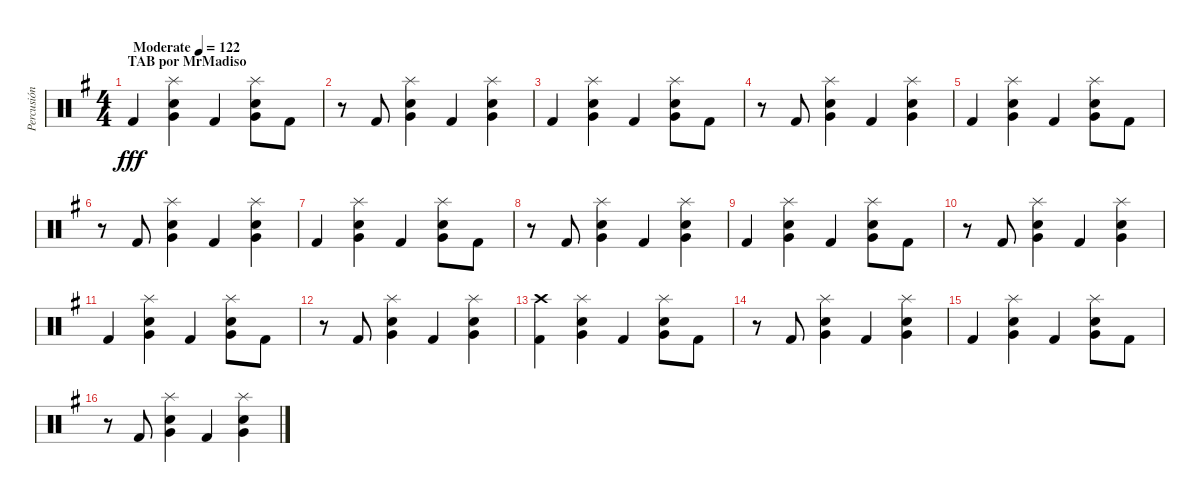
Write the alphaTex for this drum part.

\track ("Percusión" "Percusión") {instrument percussion}
\staff {score}
\articulation defaults
\ts (4 4)
\section ("" "TAB por MrMadiso")
\tempo (122 "Moderate")
\clef neutral
\ks g "Kick (hit) 2".4{dy fff}
("Splash (hit)" "Very Low Tom (hit)" "Snare (hit) 2").4 "Kick (hit) 2".4 ("Splash (hit)" "Very Low Tom (hit)" "Snare (hit) 2").8 "Kick (hit) 2".8 |
r.8 "Kick (hit) 2".8 ("Splash (hit)" "Very Low Tom (hit)" "Snare (hit) 2").4 "Kick (hit) 2".4 ("Splash (hit)" "Very Low Tom (hit)" "Snare (hit) 2").4 |
"Kick (hit) 2".4 ("Splash (hit)" "Very Low Tom (hit)" "Snare (hit) 2").4 "Kick (hit) 2".4 ("Splash (hit)" "Very Low Tom (hit)" "Snare (hit) 2").8 "Kick (hit) 2".8 |
r.8 "Kick (hit) 2".8 ("Splash (hit)" "Very Low Tom (hit)" "Snare (hit) 2").4 "Kick (hit) 2".4 ("Splash (hit)" "Very Low Tom (hit)" "Snare (hit) 2").4 |
"Kick (hit) 2".4 ("Splash (hit)" "Very Low Tom (hit)" "Snare (hit) 2").4 "Kick (hit) 2".4 ("Splash (hit)" "Very Low Tom (hit)" "Snare (hit) 2").8 "Kick (hit) 2".8 |
r.8 "Kick (hit) 2".8 ("Splash (hit)" "Very Low Tom (hit)" "Snare (hit) 2").4 "Kick (hit) 2".4 ("Splash (hit)" "Very Low Tom (hit)" "Snare (hit) 2").4 |
"Kick (hit) 2".4 ("Splash (hit)" "Very Low Tom (hit)" "Snare (hit) 2").4 "Kick (hit) 2".4 ("Splash (hit)" "Very Low Tom (hit)" "Snare (hit) 2").8 "Kick (hit) 2".8 |
r.8 "Kick (hit) 2".8 ("Splash (hit)" "Very Low Tom (hit)" "Snare (hit) 2").4 "Kick (hit) 2".4 ("Splash (hit)" "Very Low Tom (hit)" "Snare (hit) 2").4 |
"Kick (hit) 2".4 ("Splash (hit)" "Very Low Tom (hit)" "Snare (hit) 2").4 "Kick (hit) 2".4 ("Splash (hit)" "Very Low Tom (hit)" "Snare (hit) 2").8 "Kick (hit) 2".8 |
r.8 "Kick (hit) 2".8 ("Splash (hit)" "Very Low Tom (hit)" "Snare (hit) 2").4 "Kick (hit) 2".4 ("Splash (hit)" "Very Low Tom (hit)" "Snare (hit) 2").4 |
"Kick (hit) 2".4 ("Splash (hit)" "Very Low Tom (hit)" "Snare (hit) 2").4 "Kick (hit) 2".4 ("Splash (hit)" "Very Low Tom (hit)" "Snare (hit) 2").8 "Kick (hit) 2".8 |
r.8 "Kick (hit) 2".8 ("Splash (hit)" "Very Low Tom (hit)" "Snare (hit) 2").4 "Kick (hit) 2".4 ("Splash (hit)" "Very Low Tom (hit)" "Snare (hit) 2").4 |
("Crash high (hit)" "Kick (hit) 2").4 ("Splash (hit)" "Very Low Tom (hit)" "Snare (hit) 2").4 "Kick (hit) 2".4 ("Splash (hit)" "Very Low Tom (hit)" "Snare (hit) 2").8 "Kick (hit) 2".8 |
r.8 "Kick (hit) 2".8 ("Splash (hit)" "Very Low Tom (hit)" "Snare (hit) 2").4 "Kick (hit) 2".4 ("Splash (hit)" "Very Low Tom (hit)" "Snare (hit) 2").4 |
"Kick (hit) 2".4 ("Splash (hit)" "Very Low Tom (hit)" "Snare (hit) 2").4 "Kick (hit) 2".4 ("Splash (hit)" "Very Low Tom (hit)" "Snare (hit) 2").8 "Kick (hit) 2".8 |
r.8 "Kick (hit) 2".8 ("Splash (hit)" "Very Low Tom (hit)" "Snare (hit) 2").4 "Kick (hit) 2".4 ("Splash (hit)" "Very Low Tom (hit)" "Snare (hit) 2").4
